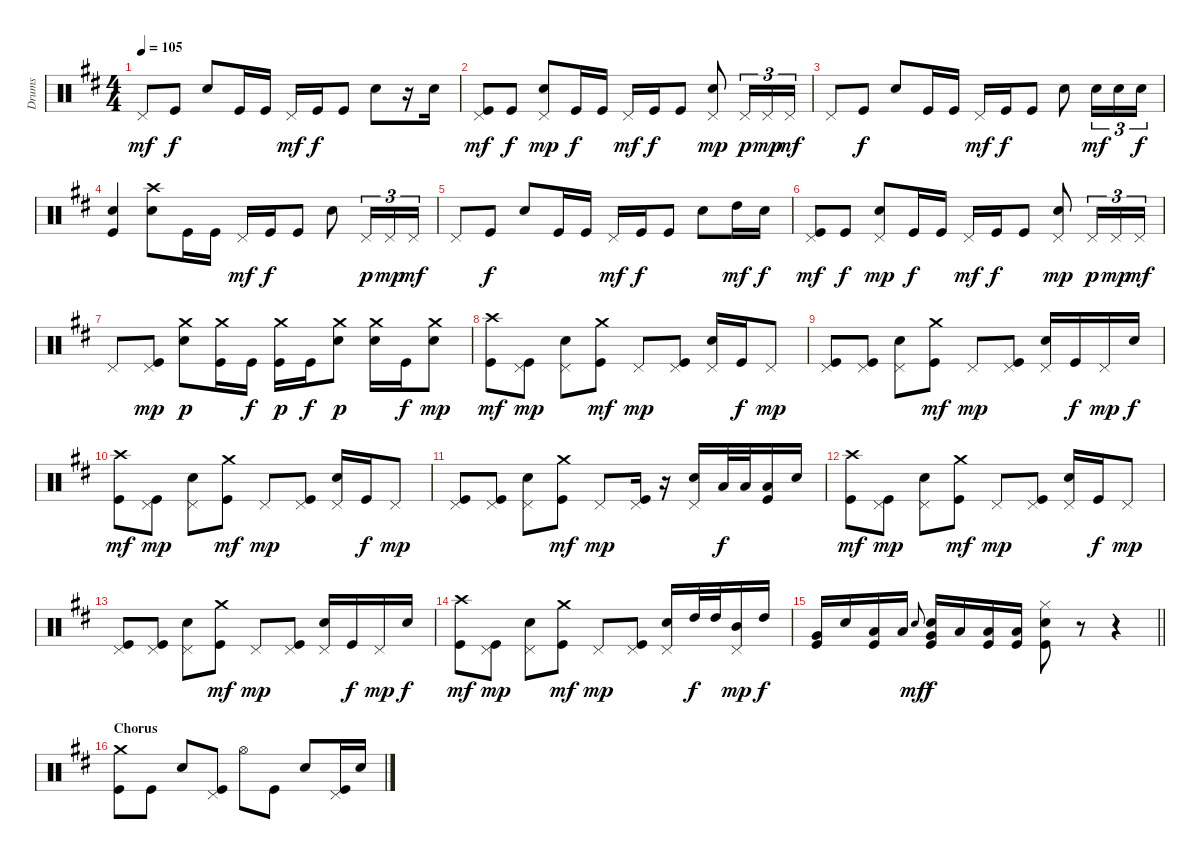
\track ("Drums" "Drums") {instrument percussion}
\staff {score}
\articulation defaults
\ts (4 4)
\tempo 105
\clef neutral
\ks d "Pedal Hi-Hat (hit)".8{dy mf} "Kick (hit)".8{dy f} "Snare (hit) 2".8 "Kick (hit)".16 "Kick (hit)".16 "Pedal Hi-Hat (hit)".16{dy mf} "Kick (hit)".16{dy f} "Kick (hit)".8 "Snare (hit) 2".8
r.16 "Snare (hit) 2".16 |
("Pedal Hi-Hat (hit)" "Kick (hit)").8{dy mf} "Kick (hit)".8{dy f} ("Pedal Hi-Hat (hit)" "Snare (hit) 2").8{dy mp} "Kick (hit)".16{dy f} "Kick (hit)".16 "Pedal Hi-Hat (hit)".16{dy mf} "Kick (hit)".16{dy f} "Kick (hit)".8 ("Pedal Hi-Hat (hit)" "Snare (hit) 2").8{dy mp} "Pedal Hi-Hat (hit)".16{tu (3 2) dy p} "Pedal Hi-Hat (hit)".16{tu (3 2) dy mp} "Pedal Hi-Hat (hit)".16{tu (3 2) dy mf} |
"Pedal Hi-Hat (hit)".8 "Kick (hit)".8{dy f} "Snare (hit) 2".8 "Kick (hit)".16 "Kick (hit)".16 "Pedal Hi-Hat (hit)".16{dy mf} "Kick (hit)".16{dy f} "Kick (hit)".8 "Snare (hit) 2".8 "Snare (hit) 2".16{tu (3 2) dy mf} "Snare (hit) 2".16{tu (3 2)} "Snare (hit) 2".16{tu (3 2) dy f} |
("Snare (hit) 2" "Kick (hit)").4 ("Crash high (hit)" "Snare (hit) 2").8 "Kick (hit)".16 "Kick (hit)".16 "Pedal Hi-Hat (hit)".16{dy mf} "Kick (hit)".16{dy f} "Kick (hit)".8 "Snare (hit) 2".8 "Pedal Hi-Hat (hit)".16{tu (3 2) dy p} "Pedal Hi-Hat (hit)".16{tu (3 2) dy mp} "Pedal Hi-Hat (hit)".16{tu (3 2) dy mf} |
"Pedal Hi-Hat (hit)".8 "Kick (hit)".8{dy f} "Snare (hit) 2".8 "Kick (hit)".16 "Kick (hit)".16 "Pedal Hi-Hat (hit)".16{dy mf} "Kick (hit)".16{dy f} "Kick (hit)".8 "Snare (hit) 2".8 "High Tom (hit)".16{dy mf} "Snare (hit) 2".16{dy f} |
("Pedal Hi-Hat (hit)" "Kick (hit)").8{dy mf} "Kick (hit)".8{dy f} ("Pedal Hi-Hat (hit)" "Snare (hit) 2").8{dy mp} "Kick (hit)".16{dy f} "Kick (hit)".16 "Pedal Hi-Hat (hit)".16{dy mf} "Kick (hit)".16{dy f} "Kick (hit)".8 ("Pedal Hi-Hat (hit)" "Snare (hit) 2").8{dy mp} "Pedal Hi-Hat (hit)".16{tu (3 2) dy p} "Pedal Hi-Hat (hit)".16{tu (3 2) dy mp} "Pedal Hi-Hat (hit)".16{tu (3 2) dy mf} |
"Pedal Hi-Hat (hit)".8 ("Pedal Hi-Hat (hit)" "Kick (hit)").8{dy mp} ("Crash medium (hit)" "Snare (hit) 2").8{dy p} ("Crash medium (hit)" "Kick (hit)").16 "Kick (hit)".16{dy f} ("Crash medium (hit)" "Kick (hit)").16{dy p} "Kick (hit)".16{dy f} ("Crash medium (hit)" "Snare (hit) 2").8{dy p} ("Crash medium (hit)" "Snare (hit) 2").16 "Kick (hit)".16{dy f} ("Crash medium (hit)" "Snare (hit) 2").8{dy mp} |
("Crash high (hit)" "Kick (hit)").8{dy mf} ("Pedal Hi-Hat (hit)" "Kick (hit)").8{dy mp} ("Pedal Hi-Hat (hit)" "Snare (hit) 2").8 ("Crash medium (hit)" "Kick (hit)").8{dy mf} "Pedal Hi-Hat (hit)".8{dy mp} ("Pedal Hi-Hat (hit)" "Kick (hit)").8 ("Pedal Hi-Hat (hit)" "Snare (hit) 2").16 "Kick (hit)".16{dy f} "Pedal Hi-Hat (hit)".8{dy mp} |
("Pedal Hi-Hat (hit)" "Kick (hit)").8 ("Pedal Hi-Hat (hit)" "Kick (hit)").8 ("Pedal Hi-Hat (hit)" "Snare (hit) 2").8 ("Crash medium (hit)" "Kick (hit)").8{dy mf} "Pedal Hi-Hat (hit)".8{dy mp} ("Pedal Hi-Hat (hit)" "Kick (hit)").8 ("Pedal Hi-Hat (hit)" "Snare (hit) 2").16 "Kick (hit)".16{dy f} "Pedal Hi-Hat (hit)".16{dy mp} "Snare (hit) 2".16{dy f} |
("Crash high (hit)" "Kick (hit)").8{dy mf} ("Pedal Hi-Hat (hit)" "Kick (hit)").8{dy mp} ("Pedal Hi-Hat (hit)" "Snare (hit) 2").8 ("Crash medium (hit)" "Kick (hit)").8{dy mf} "Pedal Hi-Hat (hit)".8{dy mp} ("Pedal Hi-Hat (hit)" "Kick (hit)").8 ("Pedal Hi-Hat (hit)" "Snare (hit) 2").16 "Kick (hit)".16{dy f} "Pedal Hi-Hat (hit)".8{dy mp} |
("Pedal Hi-Hat (hit)" "Kick (hit)").8 ("Pedal Hi-Hat (hit)" "Kick (hit)").8 ("Pedal Hi-Hat (hit)" "Snare (hit) 2").8 ("Crash medium (hit)" "Kick (hit)").8{dy mf} "Pedal Hi-Hat (hit)".8{dy mp} ("Pedal Hi-Hat (hit)" "Kick (hit)").16 r.16 ("Pedal Hi-Hat (hit)" "Snare (hit) 2").16 "Low Floor Tom (hit)".32{dy f} "Low Floor Tom (hit)".32 ("Low Floor Tom (hit)" "Kick (hit)").16 "Snare (hit) 2".16 |
("Crash high (hit)" "Kick (hit)").8{dy mf} ("Pedal Hi-Hat (hit)" "Kick (hit)").8{dy mp} ("Pedal Hi-Hat (hit)" "Snare (hit) 2").8 ("Crash medium (hit)" "Kick (hit)").8{dy mf} "Pedal Hi-Hat (hit)".8{dy mp} ("Pedal Hi-Hat (hit)" "Kick (hit)").8 ("Pedal Hi-Hat (hit)" "Snare (hit) 2").16 "Kick (hit)".16{dy f} "Pedal Hi-Hat (hit)".8{dy mp} |
("Pedal Hi-Hat (hit)" "Kick (hit)").8 ("Pedal Hi-Hat (hit)" "Kick (hit)").8 ("Pedal Hi-Hat (hit)" "Snare (hit) 2").8 ("Crash medium (hit)" "Kick (hit)").8{dy mf} "Pedal Hi-Hat (hit)".8{dy mp} ("Pedal Hi-Hat (hit)" "Kick (hit)").8 ("Pedal Hi-Hat (hit)" "Snare (hit) 2").16 "Kick (hit)".16{dy f} "Pedal Hi-Hat (hit)".16{dy mp} "Snare (hit) 2".16{dy f} |
("Crash high (hit)" "Kick (hit)").8{dy mf} ("Pedal Hi-Hat (hit)" "Kick (hit)").8{dy mp} ("Pedal Hi-Hat (hit)" "Snare (hit) 2").8 ("Crash medium (hit)" "Kick (hit)").8{dy mf} "Pedal Hi-Hat (hit)".8{dy mp} ("Pedal Hi-Hat (hit)" "Kick (hit)").8 ("Pedal Hi-Hat (hit)" "Snare (hit) 2").16 "High Tom (hit)".32{dy f} "High Tom (hit)".32 ("Pedal Hi-Hat (hit)" "Mid Tom (hit)").16{dy mp} "High Tom (hit)".16{dy f} |
\barLineRight lightlight
("Very Low Tom (hit)" "Kick (hit)").16 "Snare (hit) 2".16 ("Low Floor Tom (hit)" "Kick (hit)").16 "Low Floor Tom (hit)".16 "Snare (hit) 2".8{gr onbeat dy mf} ("Very Low Tom (hit)" "Snare (hit) 2" "Kick (hit)").16{dy f} "Low Floor Tom (hit)".16 ("Low Floor Tom (hit)" "Kick (hit)").16 ("Low Floor Tom (hit)" "Kick (hit)").16 ("Hi-Hat (closed)" "Snare (hit) 2" "Kick (hit)").8 r.8 r.4 |
\section ("" "Chorus")
("Crash medium (hit)" "Kick (hit)").8 "Kick (hit)".8 "Snare (hit) 2".8 ("Pedal Hi-Hat (hit)" "Kick (hit)").8 "Hi-Hat (open)".8 "Kick (hit)".8 "Snare (hit) 2".8 ("Pedal Hi-Hat (hit)" "Kick (hit)").16 "Snare (hit) 2".16
